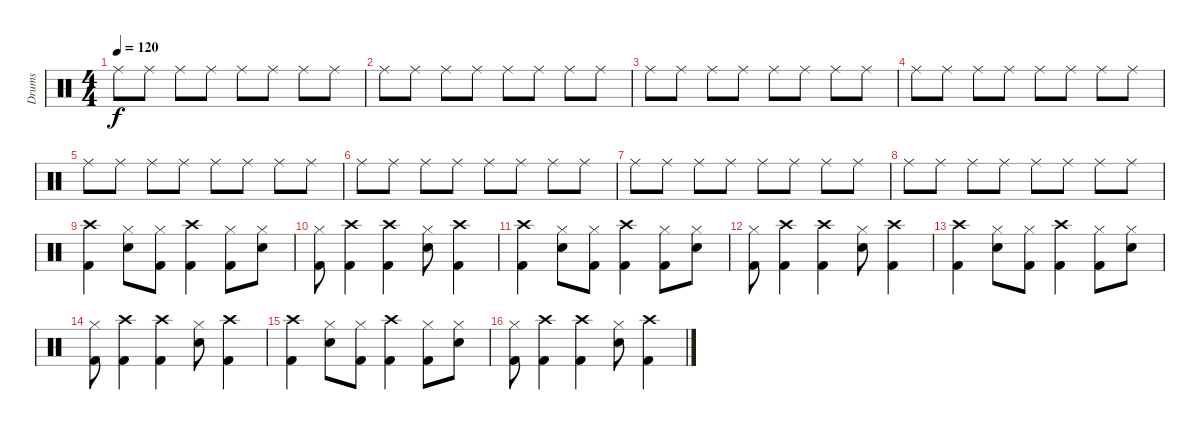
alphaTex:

\track ("Drums" "Drums") {instrument percussion}
\staff {score}
\articulation defaults
\ts (4 4)
\tempo 120
\clef neutral
\ks c "Ride (middle)".8{dy f} "Ride (middle)".8 "Ride (middle)".8 "Ride (middle)".8 "Ride (middle)".8 "Ride (middle)".8 "Ride (middle)".8 "Ride (middle)".8
|
"Ride (middle)".8 "Ride (middle)".8 "Ride (middle)".8 "Ride (middle)".8 "Ride (middle)".8 "Ride (middle)".8 "Ride (middle)".8 "Ride (middle)".8 |
"Ride (middle)".8 "Ride (middle)".8 "Ride (middle)".8 "Ride (middle)".8 "Ride (middle)".8 "Ride (middle)".8 "Ride (middle)".8 "Ride (middle)".8 |
"Ride (middle)".8 "Ride (middle)".8 "Ride (middle)".8 "Ride (middle)".8 "Ride (middle)".8 "Ride (middle)".8 "Ride (middle)".8 "Ride (middle)".8 |
"Ride (middle)".8 "Ride (middle)".8 "Ride (middle)".8 "Ride (middle)".8 "Ride (middle)".8 "Ride (middle)".8 "Ride (middle)".8 "Ride (middle)".8 |
"Ride (middle)".8 "Ride (middle)".8 "Ride (middle)".8 "Ride (middle)".8 "Ride (middle)".8 "Ride (middle)".8 "Ride (middle)".8 "Ride (middle)".8 |
"Ride (middle)".8 "Ride (middle)".8 "Ride (middle)".8 "Ride (middle)".8 "Ride (middle)".8 "Ride (middle)".8 "Ride (middle)".8 "Ride (middle)".8 |
"Ride (middle)".8 "Ride (middle)".8 "Ride (middle)".8 "Ride (middle)".8 "Ride (middle)".8 "Ride (middle)".8 "Ride (middle)".8 "Ride (middle)".8 |
("Crash high (hit)" "Kick (hit) 2").4 ("Hi-Hat (closed)" "Electric Snare (hit)").8 ("Hi-Hat (closed)" "Kick (hit) 2").8 ("Crash high (hit)" "Kick (hit) 2").4 ("Hi-Hat (closed)" "Kick (hit) 2").8 ("Hi-Hat (closed)" "Electric Snare (hit)").8 |
("Hi-Hat (closed)" "Kick (hit) 2").8 ("Crash high (hit)" "Kick (hit) 2").4 ("Crash high (hit)" "Kick (hit) 2").4 ("Hi-Hat (closed)" "Electric Snare (hit)").8 ("Crash high (hit)" "Kick (hit) 2").4 |
("Crash high (hit)" "Kick (hit) 2").4 ("Hi-Hat (closed)" "Electric Snare (hit)").8 ("Hi-Hat (closed)" "Kick (hit) 2").8 ("Crash high (hit)" "Kick (hit) 2").4 ("Hi-Hat (closed)" "Kick (hit) 2").8 ("Hi-Hat (closed)" "Electric Snare (hit)").8 |
("Hi-Hat (closed)" "Kick (hit) 2").8 ("Crash high (hit)" "Kick (hit) 2").4 ("Crash high (hit)" "Kick (hit) 2").4 ("Hi-Hat (closed)" "Electric Snare (hit)").8 ("Crash high (hit)" "Kick (hit) 2").4 |
("Crash high (hit)" "Kick (hit) 2").4 ("Hi-Hat (closed)" "Electric Snare (hit)").8 ("Hi-Hat (closed)" "Kick (hit) 2").8 ("Crash high (hit)" "Kick (hit) 2").4 ("Hi-Hat (closed)" "Kick (hit) 2").8 ("Hi-Hat (closed)" "Electric Snare (hit)").8 |
("Hi-Hat (closed)" "Kick (hit) 2").8 ("Crash high (hit)" "Kick (hit) 2").4 ("Crash high (hit)" "Kick (hit) 2").4 ("Hi-Hat (closed)" "Electric Snare (hit)").8 ("Crash high (hit)" "Kick (hit) 2").4 |
("Crash high (hit)" "Kick (hit) 2").4 ("Hi-Hat (closed)" "Electric Snare (hit)").8 ("Hi-Hat (closed)" "Kick (hit) 2").8 ("Crash high (hit)" "Kick (hit) 2").4 ("Hi-Hat (closed)" "Kick (hit) 2").8 ("Hi-Hat (closed)" "Electric Snare (hit)").8 |
("Hi-Hat (closed)" "Kick (hit) 2").8 ("Crash high (hit)" "Kick (hit) 2").4 ("Crash high (hit)" "Kick (hit) 2").4 ("Hi-Hat (closed)" "Electric Snare (hit)").8 ("Crash high (hit)" "Kick (hit) 2").4
